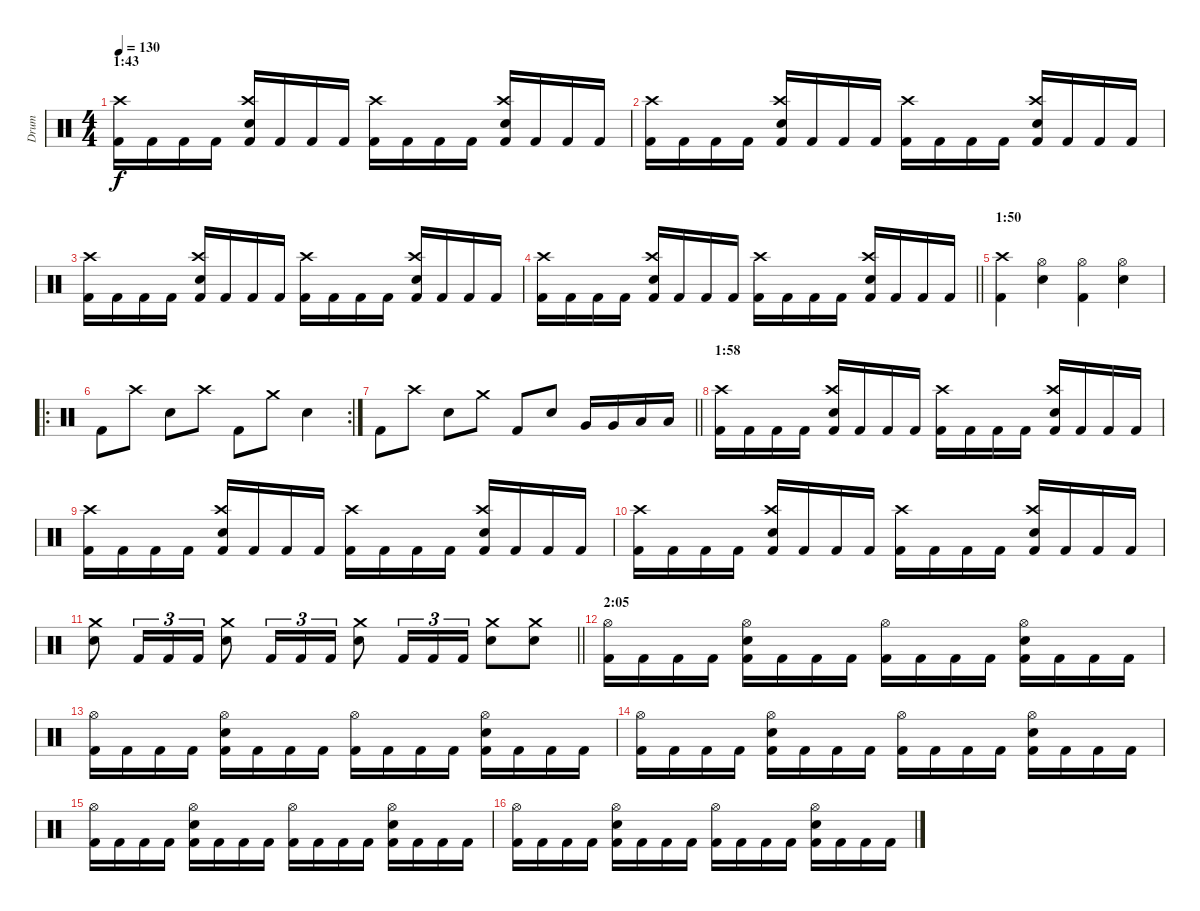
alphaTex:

\track ("Drum" "Drum") {instrument percussion}
\staff {score}
\articulation defaults
\ts (4 4)
\section ("" "1:43")
\tempo 130
\clef neutral
\ks c
("Kick (hit) 2" "Crash high (hit)").16{dy f} "Kick (hit) 2".16 "Kick (hit) 2".16 "Kick (hit) 2".16 ("Kick (hit) 2" "Electric Snare (hit)" "Crash high (hit)").16 "Kick (hit) 2".16 "Kick (hit) 2".16 "Kick (hit) 2".16 ("Kick (hit) 2" "Crash high (hit)").16 "Kick (hit) 2".16 "Kick (hit) 2".16 "Kick (hit) 2".16 ("Kick (hit) 2" "Electric Snare (hit)" "Crash high (hit)").16 "Kick (hit) 2".16 "Kick (hit) 2".16 "Kick (hit) 2".16 |
("Kick (hit) 2" "Crash high (hit)").16 "Kick (hit) 2".16 "Kick (hit) 2".16 "Kick (hit) 2".16 ("Kick (hit) 2" "Electric Snare (hit)" "Crash high (hit)").16 "Kick (hit) 2".16 "Kick (hit) 2".16 "Kick (hit) 2".16 ("Kick (hit) 2" "Crash high (hit)").16 "Kick (hit) 2".16 "Kick (hit) 2".16 "Kick (hit) 2".16 ("Kick (hit) 2" "Electric Snare (hit)" "Crash high (hit)").16 "Kick (hit) 2".16 "Kick (hit) 2".16 "Kick (hit) 2".16 |
("Kick (hit) 2" "Crash high (hit)").16 "Kick (hit) 2".16 "Kick (hit) 2".16 "Kick (hit) 2".16 ("Kick (hit) 2" "Electric Snare (hit)" "Crash high (hit)").16 "Kick (hit) 2".16 "Kick (hit) 2".16 "Kick (hit) 2".16 ("Kick (hit) 2" "Crash high (hit)").16 "Kick (hit) 2".16 "Kick (hit) 2".16 "Kick (hit) 2".16 ("Kick (hit) 2" "Electric Snare (hit)" "Crash high (hit)").16 "Kick (hit) 2".16 "Kick (hit) 2".16 "Kick (hit) 2".16 |
\barLineRight lightlight
("Kick (hit) 2" "Crash high (hit)").16 "Kick (hit) 2".16 "Kick (hit) 2".16 "Kick (hit) 2".16 ("Kick (hit) 2" "Electric Snare (hit)" "Crash high (hit)").16 "Kick (hit) 2".16 "Kick (hit) 2".16 "Kick (hit) 2".16 ("Kick (hit) 2" "Crash high (hit)").16 "Kick (hit) 2".16 "Kick (hit) 2".16 "Kick (hit) 2".16 ("Kick (hit) 2" "Electric Snare (hit)" "Crash high (hit)").16 "Kick (hit) 2".16 "Kick (hit) 2".16 "Kick (hit) 2".16 |
\section ("" "1:50")
("Kick (hit) 2" "Crash high (hit)").4 ("Electric Snare (hit)" "Hi-Hat (open)").4 ("Kick (hit) 2" "Hi-Hat (open)").4 ("Electric Snare (hit)" "Hi-Hat (open)").4 |
\ro
\rc 2 "Kick (hit) 2".8 "Crash high (hit)".8 "Electric Snare (hit)".8 "Crash high (hit)".8 "Kick (hit) 2".8 "Crash medium (hit)".8 "Electric Snare (hit)".4
|
\barLineRight lightlight "Kick (hit) 2".8 "Crash high (hit)".8 "Electric Snare (hit)".8 "Crash medium (hit)".8 "Kick (hit) 2".8 "Electric Snare (hit)".8 "Very Low Tom (hit)".16 "Very Low Tom (hit)".16 "Low Tom (hit)".16 "Low Tom (hit)".16
|
\section ("" "1:58")
("Kick (hit) 2" "Crash high (hit)").16 "Kick (hit) 2".16 "Kick (hit) 2".16 "Kick (hit) 2".16 ("Kick (hit) 2" "Electric Snare (hit)" "Crash high (hit)").16 "Kick (hit) 2".16 "Kick (hit) 2".16 "Kick (hit) 2".16 ("Kick (hit) 2" "Crash high (hit)").16 "Kick (hit) 2".16 "Kick (hit) 2".16 "Kick (hit) 2".16 ("Kick (hit) 2" "Electric Snare (hit)" "Crash high (hit)").16 "Kick (hit) 2".16 "Kick (hit) 2".16 "Kick (hit) 2".16 |
("Kick (hit) 2" "Crash high (hit)").16 "Kick (hit) 2".16 "Kick (hit) 2".16 "Kick (hit) 2".16 ("Kick (hit) 2" "Electric Snare (hit)" "Crash high (hit)").16 "Kick (hit) 2".16 "Kick (hit) 2".16 "Kick (hit) 2".16 ("Kick (hit) 2" "Crash high (hit)").16 "Kick (hit) 2".16 "Kick (hit) 2".16 "Kick (hit) 2".16 ("Kick (hit) 2" "Electric Snare (hit)" "Crash high (hit)").16 "Kick (hit) 2".16 "Kick (hit) 2".16 "Kick (hit) 2".16 |
("Kick (hit) 2" "Crash high (hit)").16 "Kick (hit) 2".16 "Kick (hit) 2".16 "Kick (hit) 2".16 ("Kick (hit) 2" "Electric Snare (hit)" "Crash high (hit)").16 "Kick (hit) 2".16 "Kick (hit) 2".16 "Kick (hit) 2".16 ("Kick (hit) 2" "Crash high (hit)").16 "Kick (hit) 2".16 "Kick (hit) 2".16 "Kick (hit) 2".16 ("Kick (hit) 2" "Electric Snare (hit)" "Crash high (hit)").16 "Kick (hit) 2".16 "Kick (hit) 2".16 "Kick (hit) 2".16 |
\barLineRight lightlight
("Electric Snare (hit)" "Crash medium (hit)").8 "Kick (hit) 2".16{tu (3 2)} "Kick (hit) 2".16{tu (3 2)} "Kick (hit) 2".16{tu (3 2)} ("Electric Snare (hit)" "Crash medium (hit)").8 "Kick (hit) 2".16{tu (3 2)} "Kick (hit) 2".16{tu (3 2)} "Kick (hit) 2".16{tu (3 2)} ("Electric Snare (hit)" "Crash medium (hit)").8 "Kick (hit) 2".16{tu (3 2)} "Kick (hit) 2".16{tu (3 2)} "Kick (hit) 2".16{tu (3 2)} ("Electric Snare (hit)" "Crash medium (hit)").8 ("Electric Snare (hit)" "Crash medium (hit)").8 |
\section ("" "2:05")
("Kick (hit) 2" "Hi-Hat (open)").16 "Kick (hit) 2".16 "Kick (hit) 2".16 "Kick (hit) 2".16 ("Kick (hit) 2" "Electric Snare (hit)" "Hi-Hat (open)").16 "Kick (hit) 2".16 "Kick (hit) 2".16 "Kick (hit) 2".16 ("Kick (hit) 2" "Hi-Hat (open)").16 "Kick (hit) 2".16 "Kick (hit) 2".16 "Kick (hit) 2".16 ("Kick (hit) 2" "Electric Snare (hit)" "Hi-Hat (open)").16 "Kick (hit) 2".16 "Kick (hit) 2".16 "Kick (hit) 2".16 |
("Kick (hit) 2" "Hi-Hat (open)").16 "Kick (hit) 2".16 "Kick (hit) 2".16 "Kick (hit) 2".16 ("Kick (hit) 2" "Electric Snare (hit)" "Hi-Hat (open)").16 "Kick (hit) 2".16 "Kick (hit) 2".16 "Kick (hit) 2".16 ("Kick (hit) 2" "Hi-Hat (open)").16 "Kick (hit) 2".16 "Kick (hit) 2".16 "Kick (hit) 2".16 ("Kick (hit) 2" "Electric Snare (hit)" "Hi-Hat (open)").16 "Kick (hit) 2".16 "Kick (hit) 2".16 "Kick (hit) 2".16 |
("Kick (hit) 2" "Hi-Hat (open)").16 "Kick (hit) 2".16 "Kick (hit) 2".16 "Kick (hit) 2".16 ("Kick (hit) 2" "Electric Snare (hit)" "Hi-Hat (open)").16 "Kick (hit) 2".16 "Kick (hit) 2".16 "Kick (hit) 2".16 ("Kick (hit) 2" "Hi-Hat (open)").16 "Kick (hit) 2".16 "Kick (hit) 2".16 "Kick (hit) 2".16 ("Kick (hit) 2" "Electric Snare (hit)" "Hi-Hat (open)").16 "Kick (hit) 2".16 "Kick (hit) 2".16 "Kick (hit) 2".16 |
("Kick (hit) 2" "Hi-Hat (open)").16 "Kick (hit) 2".16 "Kick (hit) 2".16 "Kick (hit) 2".16 ("Kick (hit) 2" "Electric Snare (hit)" "Hi-Hat (open)").16 "Kick (hit) 2".16 "Kick (hit) 2".16 "Kick (hit) 2".16 ("Kick (hit) 2" "Hi-Hat (open)").16 "Kick (hit) 2".16 "Kick (hit) 2".16 "Kick (hit) 2".16 ("Kick (hit) 2" "Electric Snare (hit)" "Hi-Hat (open)").16 "Kick (hit) 2".16 "Kick (hit) 2".16 "Kick (hit) 2".16 |
("Kick (hit) 2" "Hi-Hat (open)").16 "Kick (hit) 2".16 "Kick (hit) 2".16 "Kick (hit) 2".16 ("Kick (hit) 2" "Electric Snare (hit)" "Hi-Hat (open)").16 "Kick (hit) 2".16 "Kick (hit) 2".16 "Kick (hit) 2".16 ("Kick (hit) 2" "Hi-Hat (open)").16 "Kick (hit) 2".16 "Kick (hit) 2".16 "Kick (hit) 2".16 ("Kick (hit) 2" "Electric Snare (hit)" "Hi-Hat (open)").16 "Kick (hit) 2".16 "Kick (hit) 2".16 "Kick (hit) 2".16
